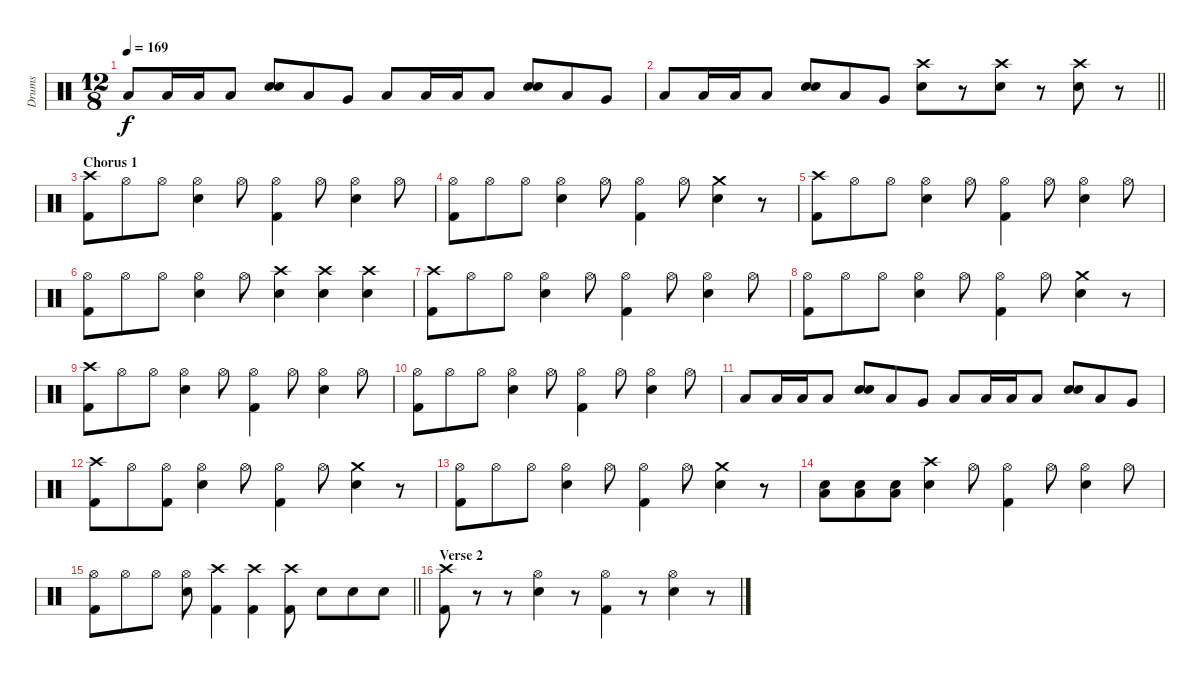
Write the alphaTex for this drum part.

\track ("Drums" "Drums") {instrument percussion}
\staff {score}
\articulation defaults
\ts (12 8)
\tempo 169
\clef neutral
\ks c "Low Tom (hit)".8{dy f} "Low Tom (hit)".16 "Low Tom (hit)".16 "Low Tom (hit)".8
("Snare (hit) 2" "Snare (hit) 2").8 "Low Tom (hit)".8 "Very Low Tom (hit)".8 "Low Tom (hit)".8 "Low Tom (hit)".16 "Low Tom (hit)".16 "Low Tom (hit)".8 ("Snare (hit) 2" "Snare (hit) 2").8 "Low Tom (hit)".8 "Very Low Tom (hit)".8 |
\barLineRight lightlight "Low Tom (hit)".8 "Low Tom (hit)".16 "Low Tom (hit)".16 "Low Tom (hit)".8
("Snare (hit) 2" "Snare (hit) 2").8 "Low Tom (hit)".8 "Very Low Tom (hit)".8 ("Crash high (hit)" "Snare (hit) 2").8 r.8 ("Crash high (hit)" "Snare (hit) 2").8 r.8 ("Crash high (hit)" "Snare (hit) 2").8 r.8 |
\section ("" "Chorus 1")
("Kick (hit) 2" "Crash high (hit)").8 "Hi-Hat (open)".8 "Hi-Hat (open)".8 ("Snare (hit) 2" "Hi-Hat (open)").4 "Hi-Hat (open)".8 ("Kick (hit) 2" "Hi-Hat (open)").4 "Hi-Hat (open)".8 ("Snare (hit) 2" "Hi-Hat (open)").4 "Hi-Hat (open)".8 |
("Kick (hit) 2" "Hi-Hat (open)").8 "Hi-Hat (open)".8 "Hi-Hat (open)".8 ("Snare (hit) 2" "Hi-Hat (open)").4 "Hi-Hat (open)".8 ("Kick (hit) 2" "Hi-Hat (open)").4 "Hi-Hat (open)".8 ("Snare (hit) 2" "Crash medium (hit)").4 r.8 |
("Kick (hit) 2" "Crash high (hit)").8 "Hi-Hat (open)".8 "Hi-Hat (open)".8 ("Snare (hit) 2" "Hi-Hat (open)").4 "Hi-Hat (open)".8 ("Kick (hit) 2" "Hi-Hat (open)").4 "Hi-Hat (open)".8 ("Snare (hit) 2" "Hi-Hat (open)").4 "Hi-Hat (open)".8 |
("Kick (hit) 2" "Hi-Hat (open)").8 "Hi-Hat (open)".8 "Hi-Hat (open)".8 ("Snare (hit) 2" "Hi-Hat (open)").4 "Hi-Hat (open)".8 ("Snare (hit) 2" "Crash high (hit)").4 ("Snare (hit) 2" "Crash high (hit)").4 ("Snare (hit) 2" "Crash high (hit)").4 |
("Kick (hit) 2" "Crash high (hit)").8 "Hi-Hat (open)".8 "Hi-Hat (open)".8 ("Snare (hit) 2" "Hi-Hat (open)").4 "Hi-Hat (open)".8 ("Kick (hit) 2" "Hi-Hat (open)").4 "Hi-Hat (open)".8 ("Snare (hit) 2" "Hi-Hat (open)").4 "Hi-Hat (open)".8 |
("Kick (hit) 2" "Hi-Hat (open)").8 "Hi-Hat (open)".8 "Hi-Hat (open)".8 ("Snare (hit) 2" "Hi-Hat (open)").4 "Hi-Hat (open)".8 ("Kick (hit) 2" "Hi-Hat (open)").4 "Hi-Hat (open)".8 ("Snare (hit) 2" "Crash medium (hit)").4 r.8 |
("Kick (hit) 2" "Crash high (hit)").8 "Hi-Hat (open)".8 "Hi-Hat (open)".8 ("Snare (hit) 2" "Hi-Hat (open)").4 "Hi-Hat (open)".8 ("Kick (hit) 2" "Hi-Hat (open)").4 "Hi-Hat (open)".8 ("Snare (hit) 2" "Hi-Hat (open)").4 "Hi-Hat (open)".8 |
("Kick (hit) 2" "Hi-Hat (open)").8 "Hi-Hat (open)".8 "Hi-Hat (open)".8 ("Snare (hit) 2" "Hi-Hat (open)").4 "Hi-Hat (open)".8 ("Kick (hit) 2" "Hi-Hat (open)").4 "Hi-Hat (open)".8 ("Snare (hit) 2" "Hi-Hat (open)").4 "Hi-Hat (open)".8 |
"Low Tom (hit)".8 "Low Tom (hit)".16 "Low Tom (hit)".16 "Low Tom (hit)".8 ("Snare (hit) 2" "Snare (hit) 2").8 "Low Tom (hit)".8 "Very Low Tom (hit)".8 "Low Tom (hit)".8 "Low Tom (hit)".16 "Low Tom (hit)".16 "Low Tom (hit)".8 ("Snare (hit) 2" "Snare (hit) 2").8 "Low Tom (hit)".8 "Very Low Tom (hit)".8 |
("Kick (hit) 2" "Crash high (hit)").8 "Hi-Hat (open)".8 ("Kick (hit) 2" "Hi-Hat (open)").8 ("Snare (hit) 2" "Hi-Hat (open)").4 "Hi-Hat (open)".8 ("Kick (hit) 2" "Hi-Hat (open)").4 "Hi-Hat (open)".8 ("Snare (hit) 2" "Crash medium (hit)").4 r.8 |
("Kick (hit) 2" "Hi-Hat (open)").8 "Hi-Hat (open)".8 "Hi-Hat (open)".8 ("Snare (hit) 2" "Hi-Hat (open)").4 "Hi-Hat (open)".8 ("Kick (hit) 2" "Hi-Hat (open)").4 "Hi-Hat (open)".8 ("Snare (hit) 2" "Crash medium (hit)").4 r.8 |
("Snare (hit) 2" "Low Tom (hit)").8 ("Snare (hit) 2" "Low Tom (hit)").8 ("Snare (hit) 2" "Low Tom (hit)").8 ("Snare (hit) 2" "Crash high (hit)").4 "Hi-Hat (open)".8 ("Kick (hit) 2" "Hi-Hat (open)").4 "Hi-Hat (open)".8 ("Snare (hit) 2" "Hi-Hat (open)").4 "Hi-Hat (open)".8 |
\barLineRight lightlight
("Kick (hit) 2" "Hi-Hat (open)").8 "Hi-Hat (open)".8 "Hi-Hat (open)".8 ("Snare (hit) 2" "Hi-Hat (open)").8 ("Kick (hit) 2" "Crash high (hit)").4 ("Kick (hit) 2" "Crash high (hit)").4 ("Kick (hit) 2" "Crash high (hit)").8 "Snare (hit) 2".8 "Snare (hit) 2".8 "Snare (hit) 2".8 |
\section ("" "Verse 2")
("Kick (hit) 2" "Crash high (hit)").8 r.8 r.8 ("Snare (hit) 2" "Hi-Hat (open)").4 r.8 ("Kick (hit) 2" "Hi-Hat (open)").4 r.8 ("Snare (hit) 2" "Hi-Hat (open)").4 r.8
